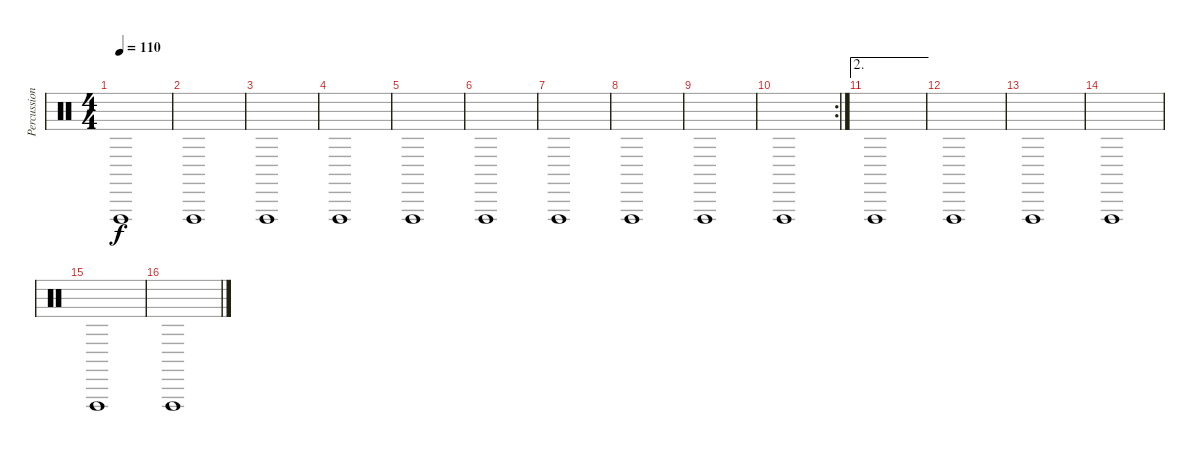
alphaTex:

\track ("Percussion" "Percussion") {instrument percussion}
\staff {score}
\articulation defaults
\ts (4 4)
\tempo 110
\clef neutral
\ks c "Vibraslap (hit)".1{dy f}
|
"Vibraslap (hit)".1 |
"Vibraslap (hit)".1 |
"Vibraslap (hit)".1 |
"Vibraslap (hit)".1 |
"Vibraslap (hit)".1 |
"Vibraslap (hit)".1 |
"Vibraslap (hit)".1 |
"Vibraslap (hit)".1 |
\rc 2 "Vibraslap (hit)".1
|
\ae 2 "Vibraslap (hit)".1
|
"Vibraslap (hit)".1 |
"Vibraslap (hit)".1 |
"Vibraslap (hit)".1 |
"Vibraslap (hit)".1 |
"Vibraslap (hit)".1
